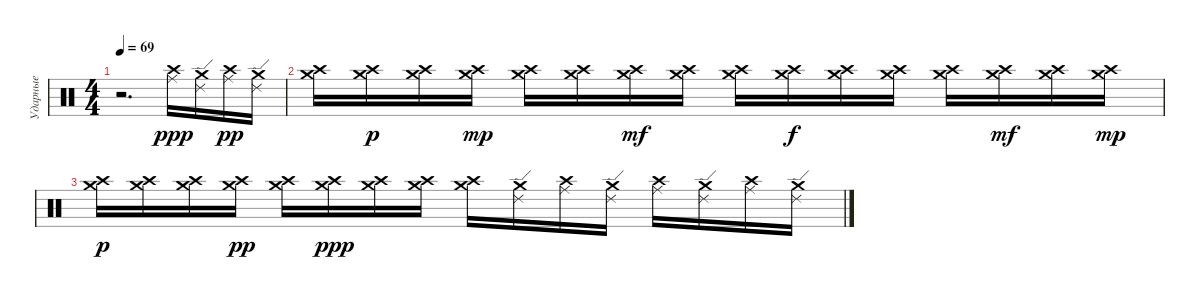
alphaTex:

\track ("Ударные" "Ударные") {instrument percussion}
\staff {score}
\articulation defaults
\ts (4 4)
\tempo 69
\clef neutral
\ks c
r.2{d dy f} ("Ride (middle)" "Crash high (hit)").16{dy ppp} ("Ride (edge) 2" "Crash medium (hit)").16 ("Ride (middle)" "Crash high (hit)").16{dy pp} ("Ride (edge) 2" "Crash medium (hit)").16 |
("Crash high (hit)" "Crash medium (hit)").16 ("Crash high (hit)" "Crash medium (hit)").16{dy p} ("Crash high (hit)" "Crash medium (hit)").16 ("Crash high (hit)" "Crash medium (hit)").16{dy mp} ("Crash high (hit)" "Crash medium (hit)").16 ("Crash high (hit)" "Crash medium (hit)").16 ("Crash high (hit)" "Crash medium (hit)").16{dy mf} ("Crash high (hit)" "Crash medium (hit)").16 ("Crash high (hit)" "Crash medium (hit)").16 ("Crash high (hit)" "Crash medium (hit)").16{dy f} ("Crash high (hit)" "Crash medium (hit)").16 ("Crash high (hit)" "Crash medium (hit)").16 ("Crash high (hit)" "Crash medium (hit)").16 ("Crash high (hit)" "Crash medium (hit)").16{dy mf} ("Crash high (hit)" "Crash medium (hit)").16 ("Crash high (hit)" "Crash medium (hit)").16{dy mp} |
("Crash high (hit)" "Crash medium (hit)").16{dy p} ("Crash high (hit)" "Crash medium (hit)").16 ("Crash high (hit)" "Crash medium (hit)").16 ("Crash high (hit)" "Crash medium (hit)").16{dy pp} ("Crash high (hit)" "Crash medium (hit)").16 ("Crash high (hit)" "Crash medium (hit)").16{dy ppp} ("Crash high (hit)" "Crash medium (hit)").16 ("Crash high (hit)" "Crash medium (hit)").16 ("Crash high (hit)" "Crash medium (hit)").16 ("Ride (edge) 2" "Crash medium (hit)").16 ("Ride (middle)" "Crash high (hit)").16 ("Ride (edge) 2" "Crash medium (hit)").16 ("Ride (middle)" "Crash high (hit)").16 ("Ride (edge) 2" "Crash medium (hit)").16 ("Ride (middle)" "Crash high (hit)").16 ("Ride (edge) 2" "Crash medium (hit)").16
